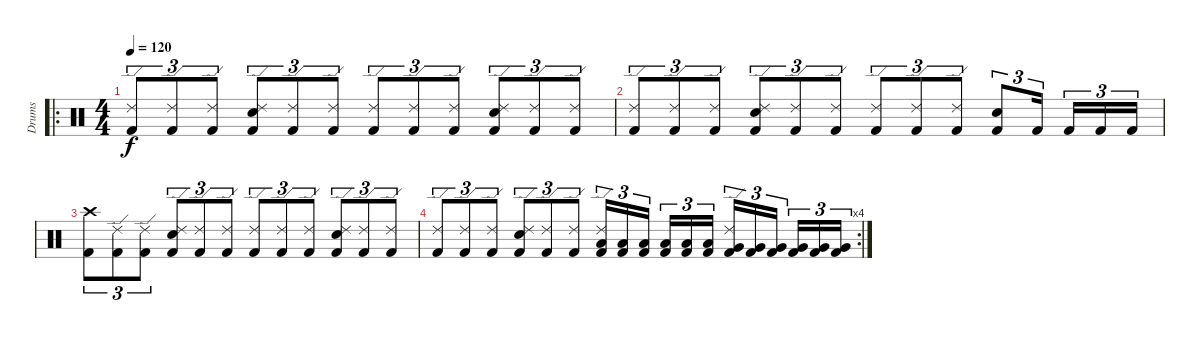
\track ("Drums" "Drums") {instrument percussion}
\staff {score}
\articulation defaults
\ro
\ts (4 4)
\tempo 120
\clef neutral
\ks c
("Ride (edge) 2" "Kick (hit) 2").8{tu (3 2) dy f} ("Ride (edge) 2" "Kick (hit) 2").8{tu (3 2)} ("Ride (edge) 2" "Kick (hit) 2").8{tu (3 2)} ("Ride (edge) 2" "Snare (hit) 2" "Kick (hit) 2").8{tu (3 2)} ("Ride (edge) 2" "Kick (hit) 2").8{tu (3 2)} ("Ride (edge) 2" "Kick (hit) 2").8{tu (3 2)} ("Ride (edge) 2" "Kick (hit) 2").8{tu (3 2)} ("Ride (edge) 2" "Kick (hit) 2").8{tu (3 2)} ("Ride (edge) 2" "Kick (hit) 2").8{tu (3 2)} ("Ride (edge) 2" "Snare (hit) 2" "Kick (hit) 2").8{tu (3 2)} ("Ride (edge) 2" "Kick (hit) 2").8{tu (3 2)} ("Ride (edge) 2" "Kick (hit) 2").8{tu (3 2)} |
("Ride (edge) 2" "Kick (hit) 2").8{tu (3 2)} ("Ride (edge) 2" "Kick (hit) 2").8{tu (3 2)} ("Ride (edge) 2" "Kick (hit) 2").8{tu (3 2)} ("Ride (edge) 2" "Snare (hit) 2" "Kick (hit) 2").8{tu (3 2)} ("Ride (edge) 2" "Kick (hit) 2").8{tu (3 2)} ("Ride (edge) 2" "Kick (hit) 2").8{tu (3 2)} ("Ride (edge) 2" "Kick (hit) 2").8{tu (3 2)} ("Ride (edge) 2" "Kick (hit) 2").8{tu (3 2)} ("Ride (edge) 2" "Kick (hit) 2").8{tu (3 2)} ("Snare (hit) 2" "Kick (hit) 2").8{tu (3 2)} "Kick (hit) 2".16{tu (3 2) beam splitsecondary} "Kick (hit) 2".16{tu (3 2)} "Kick (hit) 2".16{tu (3 2)} "Kick (hit) 2".16{tu (3 2)} |
("Crash high (hit)" "Kick (hit) 2").8{tu (3 2)} ("Ride (edge) 2" "Kick (hit) 2").8{tu (3 2)} ("Ride (edge) 2" "Kick (hit) 2").8{tu (3 2)} ("Ride (edge) 2" "Snare (hit) 2" "Kick (hit) 2").8{tu (3 2)} ("Ride (edge) 2" "Kick (hit) 2").8{tu (3 2)} ("Ride (edge) 2" "Kick (hit) 2").8{tu (3 2)} ("Ride (edge) 2" "Kick (hit) 2").8{tu (3 2)} ("Ride (edge) 2" "Kick (hit) 2").8{tu (3 2)} ("Ride (edge) 2" "Kick (hit) 2").8{tu (3 2)} ("Ride (edge) 2" "Snare (hit) 2" "Kick (hit) 2").8{tu (3 2)} ("Ride (edge) 2" "Kick (hit) 2").8{tu (3 2)} ("Ride (edge) 2" "Kick (hit) 2").8{tu (3 2)} |
\rc 4
("Ride (edge) 2" "Kick (hit) 2").8{tu (3 2)} ("Ride (edge) 2" "Kick (hit) 2").8{tu (3 2)} ("Ride (edge) 2" "Kick (hit) 2").8{tu (3 2)} ("Ride (edge) 2" "Snare (hit) 2" "Kick (hit) 2").8{tu (3 2)} ("Ride (edge) 2" "Kick (hit) 2").8{tu (3 2)} ("Ride (edge) 2" "Kick (hit) 2").8{tu (3 2)} ("Ride (edge) 2" "Low Tom (hit)" "Kick (hit) 2").16{tu (3 2)} ("Low Tom (hit)" "Kick (hit) 2").16{tu (3 2)} ("Low Tom (hit)" "Kick (hit) 2").16{tu (3 2) beam splitsecondary} ("Low Tom (hit)" "Kick (hit) 2").16{tu (3 2)} ("Low Tom (hit)" "Kick (hit) 2").16{tu (3 2)} ("Low Tom (hit)" "Kick (hit) 2").16{tu (3 2)} ("Ride (edge) 2" "Very Low Tom (hit)" "Kick (hit) 2").16{tu (3 2)} ("Very Low Tom (hit)" "Kick (hit) 2").16{tu (3 2)} ("Very Low Tom (hit)" "Kick (hit) 2").16{tu (3 2) beam splitsecondary} ("Very Low Tom (hit)" "Kick (hit) 2").16{tu (3 2)} ("Very Low Tom (hit)" "Kick (hit) 2").16{tu (3 2)} ("Very Low Tom (hit)" "Kick (hit) 2").16{tu (3 2)}
